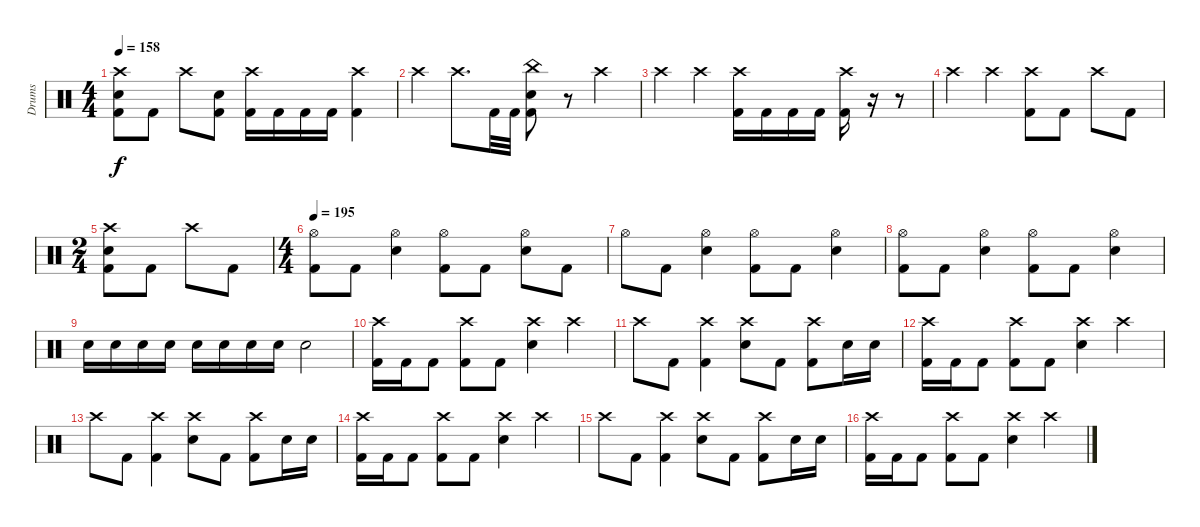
\track ("Drums" "Drums") {instrument percussion}
\staff {score}
\articulation defaults
\ts (4 4)
\tempo 158
\clef neutral
\ks c
("Crash high (hit)" "Electric Snare (hit)" "Kick (hit) 2").8{dy f} "Kick (hit) 2".8 "Crash high (hit)".8 ("Electric Snare (hit)" "Kick (hit) 2").8 ("Crash high (hit)" "Kick (hit) 2").16 "Kick (hit) 2".16 "Kick (hit) 2".16 "Kick (hit) 2".16 ("Crash high (hit)" "Kick (hit) 2").4 |
"Crash high (hit)".4 "Crash high (hit)".8{d} "Kick (hit) 2".32 "Kick (hit) 2".32 ("China (hit)" "Electric Snare (hit)" "Kick (hit) 2").8 r.8 "Crash high (hit)".4 |
"Crash high (hit)".4 "Crash high (hit)".4 ("Crash high (hit)" "Kick (hit) 2").16 "Kick (hit) 2".16 "Kick (hit) 2".16 "Kick (hit) 2".16 ("Crash high (hit)" "Kick (hit) 2").16 r.16 r.8 |
"Crash high (hit)".4 "Crash high (hit)".4 ("Crash high (hit)" "Kick (hit) 2").8 "Kick (hit) 2".8 "Crash high (hit)".8 "Kick (hit) 2".8 |
\ts (2 4)
("Crash high (hit)" "Electric Snare (hit)" "Kick (hit) 2").8 "Kick (hit) 2".8 "Crash high (hit)".8 "Kick (hit) 2".8 |
\ts (4 4)
\tempo 195
("Hi-Hat (open)" "Kick (hit) 2").8 "Kick (hit) 2".8 ("Hi-Hat (open)" "Electric Snare (hit)").4 ("Hi-Hat (open)" "Kick (hit) 2").8 "Kick (hit) 2".8 ("Hi-Hat (open)" "Electric Snare (hit)").8 "Kick (hit) 2".8 |
"Hi-Hat (open)".8 "Kick (hit) 2".8 ("Hi-Hat (open)" "Electric Snare (hit)").4 ("Hi-Hat (open)" "Kick (hit) 2").8 "Kick (hit) 2".8 ("Hi-Hat (open)" "Electric Snare (hit)").4 |
("Hi-Hat (open)" "Kick (hit) 2").8 "Kick (hit) 2".8 ("Hi-Hat (open)" "Electric Snare (hit)").4 ("Hi-Hat (open)" "Kick (hit) 2").8 "Kick (hit) 2".8 ("Hi-Hat (open)" "Electric Snare (hit)").4 |
"Electric Snare (hit)".16 "Electric Snare (hit)".16 "Electric Snare (hit)".16 "Electric Snare (hit)".16 "Electric Snare (hit)".16 "Electric Snare (hit)".16 "Electric Snare (hit)".16 "Electric Snare (hit)".16 "Electric Snare (hit)".2 |
("Crash high (hit)" "Kick (hit) 2").16 "Kick (hit) 2".16 "Kick (hit) 2".8 ("Crash high (hit)" "Kick (hit) 2").8 "Kick (hit) 2".8 ("Crash high (hit)" "Electric Snare (hit)").4 "Crash high (hit)".4 |
"Crash high (hit)".8 "Kick (hit) 2".8 ("Crash high (hit)" "Kick (hit) 2").4 ("Crash high (hit)" "Electric Snare (hit)").8 "Kick (hit) 2".8 ("Crash high (hit)" "Kick (hit) 2").8 "Electric Snare (hit)".16 "Electric Snare (hit)".16 |
("Crash high (hit)" "Kick (hit) 2").16 "Kick (hit) 2".16 "Kick (hit) 2".8 ("Crash high (hit)" "Kick (hit) 2").8 "Kick (hit) 2".8 ("Crash high (hit)" "Electric Snare (hit)").4 "Crash high (hit)".4 |
"Crash high (hit)".8 "Kick (hit) 2".8 ("Crash high (hit)" "Kick (hit) 2").4 ("Crash high (hit)" "Electric Snare (hit)").8 "Kick (hit) 2".8 ("Crash high (hit)" "Kick (hit) 2").8 "Electric Snare (hit)".16 "Electric Snare (hit)".16 |
("Crash high (hit)" "Kick (hit) 2").16 "Kick (hit) 2".16 "Kick (hit) 2".8 ("Crash high (hit)" "Kick (hit) 2").8 "Kick (hit) 2".8 ("Crash high (hit)" "Electric Snare (hit)").4 "Crash high (hit)".4 |
"Crash high (hit)".8 "Kick (hit) 2".8 ("Crash high (hit)" "Kick (hit) 2").4 ("Crash high (hit)" "Electric Snare (hit)").8 "Kick (hit) 2".8 ("Crash high (hit)" "Kick (hit) 2").8 "Electric Snare (hit)".16 "Electric Snare (hit)".16 |
("Crash high (hit)" "Kick (hit) 2").16 "Kick (hit) 2".16 "Kick (hit) 2".8 ("Crash high (hit)" "Kick (hit) 2").8 "Kick (hit) 2".8 ("Crash high (hit)" "Electric Snare (hit)").4 "Crash high (hit)".4
